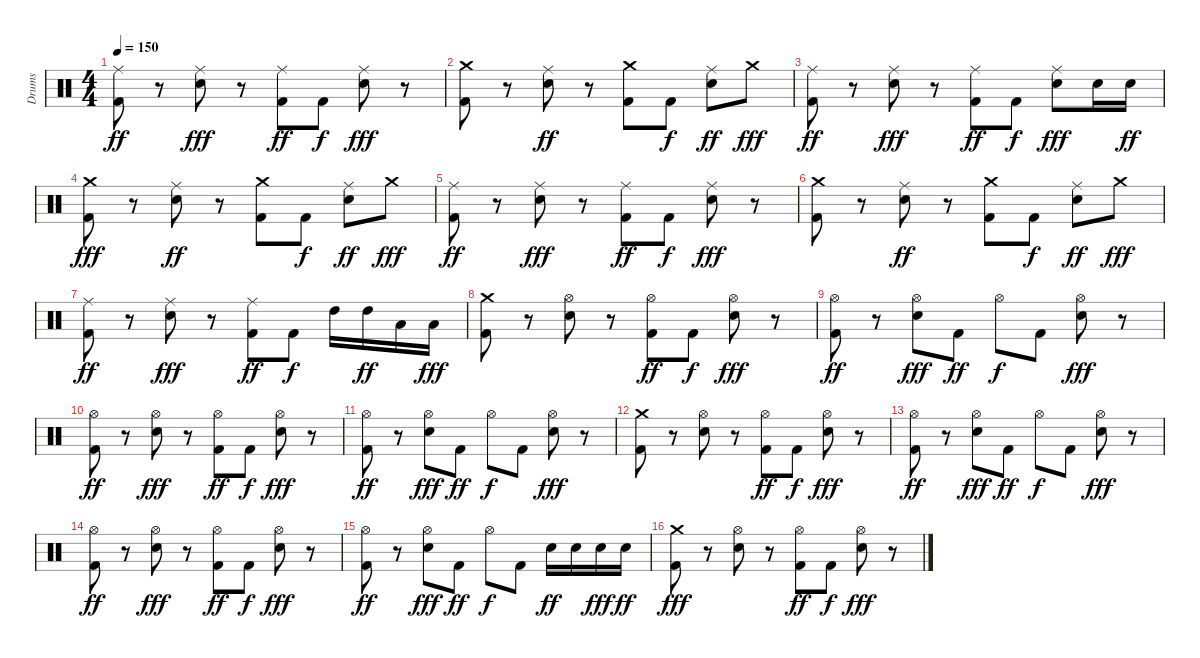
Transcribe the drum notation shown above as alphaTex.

\track ("Drums" "Drums") {instrument percussion}
\staff {score}
\articulation defaults
\ts (4 4)
\tempo 150
\clef neutral
\ks c
("Ride (middle)" "Kick (hit) 2").8{dy ff} r.8 ("Snare (hit) 2" "Ride (middle)").8{dy fff} r.8 ("Kick (hit) 2" "Ride (middle)").8{dy ff} "Kick (hit) 2".8{dy f} ("Snare (hit) 2" "Ride (middle)").8{dy fff} r.8 |
("Kick (hit) 2" "Crash medium (hit)").8 r.8 ("Ride (middle)" "Snare (hit) 2").8{dy ff} r.8 ("Crash medium (hit)" "Kick (hit) 2").8 "Kick (hit) 2".8{dy f} ("Ride (middle)" "Snare (hit) 2").8{dy ff} "Crash medium (hit)".8{dy fff} |
("Kick (hit) 2" "Ride (middle)").8{dy ff} r.8 ("Snare (hit) 2" "Ride (middle)").8{dy fff} r.8 ("Kick (hit) 2" "Ride (middle)").8{dy ff} "Kick (hit) 2".8{dy f} ("Snare (hit) 2" "Ride (middle)").8{dy fff} "Snare (hit) 2".16 "Snare (hit) 2".16{dy ff} |
("Kick (hit) 2" "Crash medium (hit)").8{dy fff} r.8 ("Ride (middle)" "Snare (hit) 2").8{dy ff} r.8 ("Crash medium (hit)" "Kick (hit) 2").8 "Kick (hit) 2".8{dy f} ("Ride (middle)" "Snare (hit) 2").8{dy ff} "Crash medium (hit)".8{dy fff} |
("Ride (middle)" "Kick (hit) 2").8{dy ff} r.8 ("Snare (hit) 2" "Ride (middle)").8{dy fff} r.8 ("Kick (hit) 2" "Ride (middle)").8{dy ff} "Kick (hit) 2".8{dy f} ("Snare (hit) 2" "Ride (middle)").8{dy fff} r.8 |
("Kick (hit) 2" "Crash medium (hit)").8 r.8 ("Ride (middle)" "Snare (hit) 2").8{dy ff} r.8 ("Crash medium (hit)" "Kick (hit) 2").8 "Kick (hit) 2".8{dy f} ("Ride (middle)" "Snare (hit) 2").8{dy ff} "Crash medium (hit)".8{dy fff} |
("Kick (hit) 2" "Ride (middle)").8{dy ff} r.8 ("Snare (hit) 2" "Ride (middle)").8{dy fff} r.8 ("Kick (hit) 2" "Ride (middle)").8{dy ff} "Kick (hit) 2".8{dy f} "High Tom (hit)".16 "High Tom (hit)".16{dy ff} "Low Tom (hit)".16 "Low Tom (hit)".16{dy fff} |
("Kick (hit) 2" "Crash medium (hit)").8 r.8 ("Snare (hit) 2" "Hi-Hat (open)").8 r.8 ("Kick (hit) 2" "Hi-Hat (open)").8{dy ff} "Kick (hit) 2".8{dy f} ("Snare (hit) 2" "Hi-Hat (open)").8{dy fff} r.8 |
("Kick (hit) 2" "Hi-Hat (open)").8{dy ff} r.8 ("Snare (hit) 2" "Hi-Hat (open)").8{dy fff} "Kick (hit) 2".8{dy ff} "Hi-Hat (open)".8{dy f} "Kick (hit) 2".8 ("Snare (hit) 2" "Hi-Hat (open)").8{dy fff} r.8 |
("Hi-Hat (open)" "Kick (hit) 2").8{dy ff} r.8 ("Snare (hit) 2" "Hi-Hat (open)").8{dy fff} r.8 ("Kick (hit) 2" "Hi-Hat (open)").8{dy ff} "Kick (hit) 2".8{dy f} ("Snare (hit) 2" "Hi-Hat (open)").8{dy fff} r.8 |
("Kick (hit) 2" "Hi-Hat (open)").8{dy ff} r.8 ("Snare (hit) 2" "Hi-Hat (open)").8{dy fff} "Kick (hit) 2".8{dy ff} "Hi-Hat (open)".8{dy f} "Kick (hit) 2".8 ("Snare (hit) 2" "Hi-Hat (open)").8{dy fff} r.8 |
("Kick (hit) 2" "Crash medium (hit)").8 r.8 ("Snare (hit) 2" "Hi-Hat (open)").8 r.8 ("Kick (hit) 2" "Hi-Hat (open)").8{dy ff} "Kick (hit) 2".8{dy f} ("Snare (hit) 2" "Hi-Hat (open)").8{dy fff} r.8 |
("Kick (hit) 2" "Hi-Hat (open)").8{dy ff} r.8 ("Snare (hit) 2" "Hi-Hat (open)").8{dy fff} "Kick (hit) 2".8{dy ff} "Hi-Hat (open)".8{dy f} "Kick (hit) 2".8 ("Snare (hit) 2" "Hi-Hat (open)").8{dy fff} r.8 |
("Hi-Hat (open)" "Kick (hit) 2").8{dy ff} r.8 ("Snare (hit) 2" "Hi-Hat (open)").8{dy fff} r.8 ("Kick (hit) 2" "Hi-Hat (open)").8{dy ff} "Kick (hit) 2".8{dy f} ("Snare (hit) 2" "Hi-Hat (open)").8{dy fff} r.8 |
("Kick (hit) 2" "Hi-Hat (open)").8{dy ff} r.8 ("Snare (hit) 2" "Hi-Hat (open)").8{dy fff} "Kick (hit) 2".8{dy ff} "Hi-Hat (open)".8{dy f} "Kick (hit) 2".8 "Snare (hit) 2".16{dy ff} "Snare (hit) 2".16 "Snare (hit) 2".16{dy fff} "Snare (hit) 2".16{dy ff} |
("Kick (hit) 2" "Crash medium (hit)").8{dy fff} r.8 ("Snare (hit) 2" "Hi-Hat (open)").8 r.8 ("Kick (hit) 2" "Hi-Hat (open)").8{dy ff} "Kick (hit) 2".8{dy f} ("Snare (hit) 2" "Hi-Hat (open)").8{dy fff} r.8
